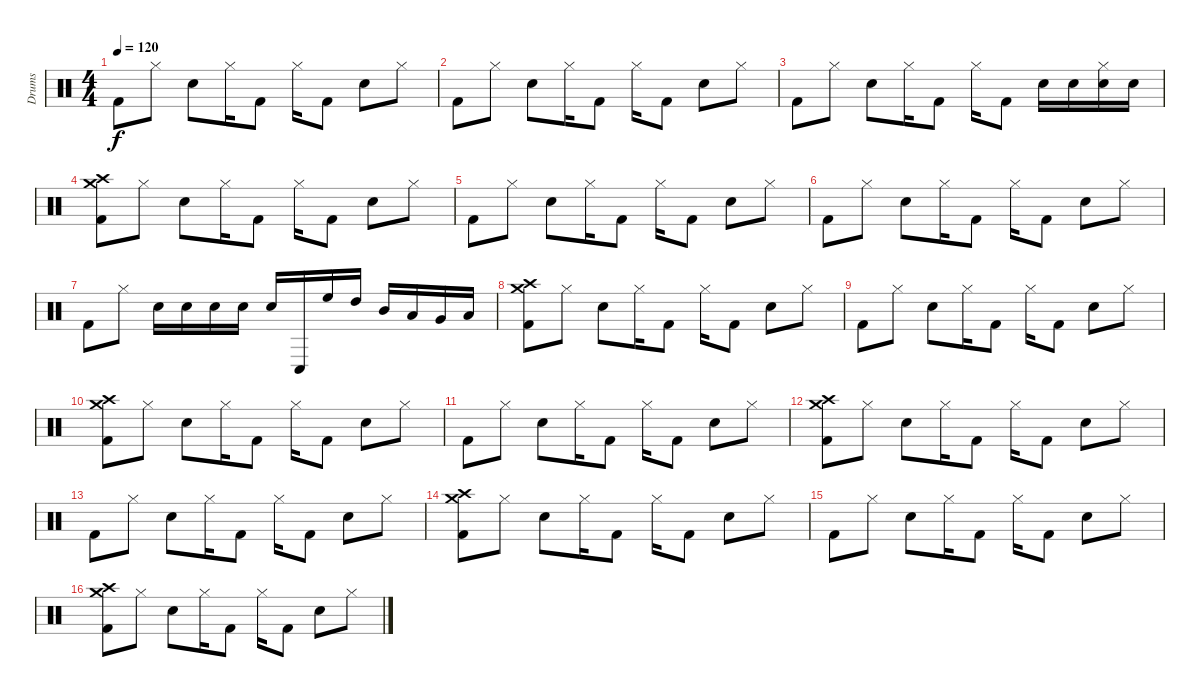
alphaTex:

\track ("Drums" "Drums") {instrument percussion}
\staff {score}
\articulation defaults
\ts (4 4)
\tempo 120
\clef neutral
\ks c "Kick (hit) 2".8{dy f} "Hi-Hat (closed)".8 "Snare (hit) 2".8 "Hi-Hat (closed)".16 "Kick (hit) 2".8 "Hi-Hat (closed)".16 "Kick (hit) 2".8 "Snare (hit) 2".8 "Hi-Hat (closed)".8
|
"Kick (hit) 2".8 "Hi-Hat (closed)".8 "Snare (hit) 2".8 "Hi-Hat (closed)".16 "Kick (hit) 2".8 "Hi-Hat (closed)".16 "Kick (hit) 2".8 "Snare (hit) 2".8 "Hi-Hat (closed)".8 |
"Kick (hit) 2".8 "Hi-Hat (closed)".8 "Snare (hit) 2".8 "Hi-Hat (closed)".16 "Kick (hit) 2".8 "Hi-Hat (closed)".16 "Kick (hit) 2".8 "Snare (hit) 2".16 "Snare (hit) 2".16 ("Snare (hit) 2" "Hi-Hat (closed)").16 "Snare (hit) 2".16 |
("Kick (hit) 2" "Crash medium (hit)" "Crash high (hit)").8 "Hi-Hat (closed)".8 "Snare (hit) 2".8 "Hi-Hat (closed)".16 "Kick (hit) 2".8 "Hi-Hat (closed)".16 "Kick (hit) 2".8 "Snare (hit) 2".8 "Hi-Hat (closed)".8 |
"Kick (hit) 2".8 "Hi-Hat (closed)".8 "Snare (hit) 2".8 "Hi-Hat (closed)".16 "Kick (hit) 2".8 "Hi-Hat (closed)".16 "Kick (hit) 2".8 "Snare (hit) 2".8 "Hi-Hat (closed)".8 |
"Kick (hit) 2".8 "Hi-Hat (closed)".8 "Snare (hit) 2".8 "Hi-Hat (closed)".16 "Kick (hit) 2".8 "Hi-Hat (closed)".16 "Kick (hit) 2".8 "Snare (hit) 2".8 "Hi-Hat (closed)".8 |
"Kick (hit) 2".8 "Hi-Hat (closed)".8 "Snare (hit) 2".16 "Snare (hit) 2".16 "Snare (hit) 2".16 "Snare (hit) 2".16 "Snare (hit) 2".16 "Conga low (hit)".16 "High Floor Tom (hit)".16 "High Tom (hit)".16 "Mid Tom (hit)".16 "Low Tom (hit)".16 "Very Low Tom (hit)".16 "Low Floor Tom (hit)".16 |
("Kick (hit) 2" "Crash medium (hit)" "Crash high (hit)").8 "Hi-Hat (closed)".8 "Snare (hit) 2".8 "Hi-Hat (closed)".16 "Kick (hit) 2".8 "Hi-Hat (closed)".16 "Kick (hit) 2".8 "Snare (hit) 2".8 "Hi-Hat (closed)".8 |
"Kick (hit) 2".8 "Hi-Hat (closed)".8 "Snare (hit) 2".8 "Hi-Hat (closed)".16 "Kick (hit) 2".8 "Hi-Hat (closed)".16 "Kick (hit) 2".8 "Snare (hit) 2".8 "Hi-Hat (closed)".8 |
("Kick (hit) 2" "Crash medium (hit)" "Crash high (hit)").8 "Hi-Hat (closed)".8 "Snare (hit) 2".8 "Hi-Hat (closed)".16 "Kick (hit) 2".8 "Hi-Hat (closed)".16 "Kick (hit) 2".8 "Snare (hit) 2".8 "Hi-Hat (closed)".8 |
"Kick (hit) 2".8 "Hi-Hat (closed)".8 "Snare (hit) 2".8 "Hi-Hat (closed)".16 "Kick (hit) 2".8 "Hi-Hat (closed)".16 "Kick (hit) 2".8 "Snare (hit) 2".8 "Hi-Hat (closed)".8 |
("Kick (hit) 2" "Crash medium (hit)" "Crash high (hit)").8 "Hi-Hat (closed)".8 "Snare (hit) 2".8 "Hi-Hat (closed)".16 "Kick (hit) 2".8 "Hi-Hat (closed)".16 "Kick (hit) 2".8 "Snare (hit) 2".8 "Hi-Hat (closed)".8 |
"Kick (hit) 2".8 "Hi-Hat (closed)".8 "Snare (hit) 2".8 "Hi-Hat (closed)".16 "Kick (hit) 2".8 "Hi-Hat (closed)".16 "Kick (hit) 2".8 "Snare (hit) 2".8 "Hi-Hat (closed)".8 |
("Kick (hit) 2" "Crash medium (hit)" "Crash high (hit)").8 "Hi-Hat (closed)".8 "Snare (hit) 2".8 "Hi-Hat (closed)".16 "Kick (hit) 2".8 "Hi-Hat (closed)".16 "Kick (hit) 2".8 "Snare (hit) 2".8 "Hi-Hat (closed)".8 |
"Kick (hit) 2".8 "Hi-Hat (closed)".8 "Snare (hit) 2".8 "Hi-Hat (closed)".16 "Kick (hit) 2".8 "Hi-Hat (closed)".16 "Kick (hit) 2".8 "Snare (hit) 2".8 "Hi-Hat (closed)".8 |
("Kick (hit) 2" "Crash medium (hit)" "Crash high (hit)").8 "Hi-Hat (closed)".8 "Snare (hit) 2".8 "Hi-Hat (closed)".16 "Kick (hit) 2".8 "Hi-Hat (closed)".16 "Kick (hit) 2".8 "Snare (hit) 2".8 "Hi-Hat (closed)".8
